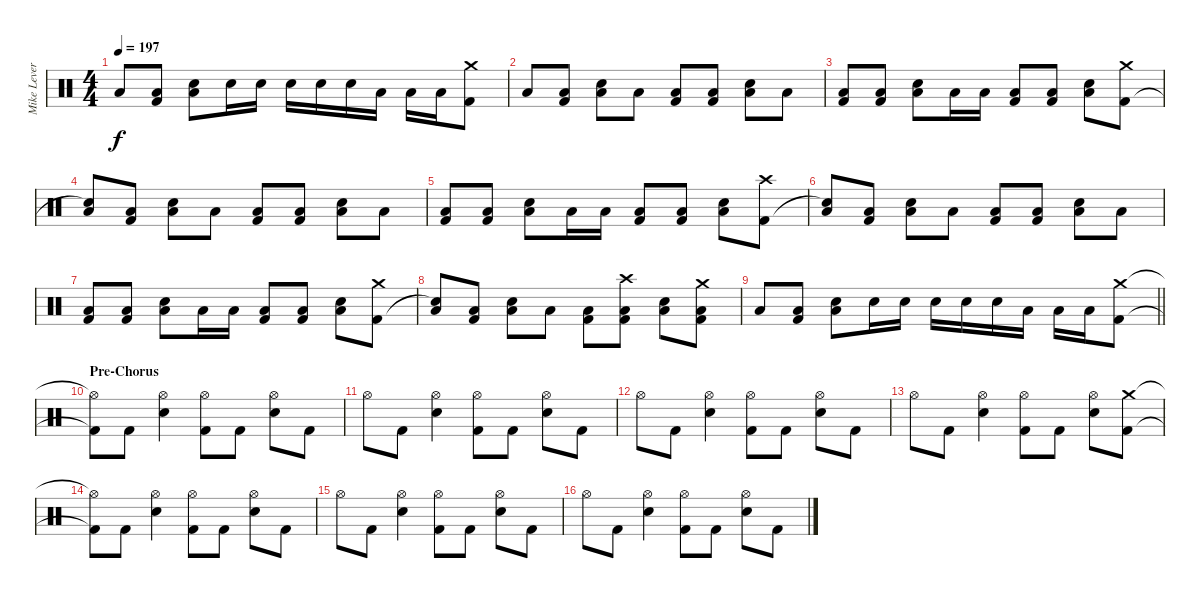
\track ("Mike Leverence - Drums" "Mike Lever") {instrument percussion}
\staff {score}
\articulation defaults
\ts (4 4)
\tempo 197
\clef neutral
\ks c "Low Floor Tom (hit)".8{dy f}
("Low Floor Tom (hit)" "Kick (hit) 2").8 ("Low Floor Tom (hit)" "Electric Snare (hit)").8 "Electric Snare (hit)".16 "Electric Snare (hit)".16 "Electric Snare (hit)".16 "Electric Snare (hit)".16 "Electric Snare (hit)".16 "Low Tom (hit)".16 "Low Tom (hit)".16 "Low Tom (hit)".16 ("Crash medium (hit)" "Kick (hit) 2").8 |
"Low Floor Tom (hit)".8 ("Low Floor Tom (hit)" "Kick (hit) 2").8 ("Low Floor Tom (hit)" "Electric Snare (hit)").8 "Low Floor Tom (hit)".8 ("Low Floor Tom (hit)" "Kick (hit) 2").8 ("Low Floor Tom (hit)" "Kick (hit) 2").8 ("Low Floor Tom (hit)" "Electric Snare (hit)").8 "Low Floor Tom (hit)".8 |
("Low Floor Tom (hit)" "Kick (hit) 2").8 ("Low Floor Tom (hit)" "Kick (hit) 2").8 ("Low Floor Tom (hit)" "Electric Snare (hit)").8 "Low Floor Tom (hit)".16 "Low Floor Tom (hit)".16 ("Low Floor Tom (hit)" "Kick (hit) 2").8 ("Low Floor Tom (hit)" "Kick (hit) 2").8 ("Low Floor Tom (hit)" "Electric Snare (hit)").8 ("Crash medium (hit)" "Kick (hit) 2").8 |
("Low Floor Tom (hit)" "Snare (hit)"{t}).8 ("Low Floor Tom (hit)" "Kick (hit) 2").8 ("Low Floor Tom (hit)" "Electric Snare (hit)").8 "Low Floor Tom (hit)".8 ("Low Floor Tom (hit)" "Kick (hit) 2").8 ("Low Floor Tom (hit)" "Kick (hit) 2").8 ("Low Floor Tom (hit)" "Electric Snare (hit)").8 "Low Floor Tom (hit)".8 |
("Low Floor Tom (hit)" "Kick (hit) 2").8 ("Low Floor Tom (hit)" "Kick (hit) 2").8 ("Low Floor Tom (hit)" "Electric Snare (hit)").8 "Low Floor Tom (hit)".16 "Low Floor Tom (hit)".16 ("Low Floor Tom (hit)" "Kick (hit) 2").8 ("Low Floor Tom (hit)" "Kick (hit) 2").8 ("Low Floor Tom (hit)" "Electric Snare (hit)").8 ("Crash high (hit)" "Kick (hit) 2").8 |
("Low Floor Tom (hit)" "Snare (hit)"{t}).8 ("Low Floor Tom (hit)" "Kick (hit) 2").8 ("Low Floor Tom (hit)" "Electric Snare (hit)").8 "Low Floor Tom (hit)".8 ("Low Floor Tom (hit)" "Kick (hit) 2").8 ("Low Floor Tom (hit)" "Kick (hit) 2").8 ("Low Floor Tom (hit)" "Electric Snare (hit)").8 "Low Floor Tom (hit)".8 |
("Low Floor Tom (hit)" "Kick (hit) 2").8 ("Low Floor Tom (hit)" "Kick (hit) 2").8 ("Low Floor Tom (hit)" "Electric Snare (hit)").8 "Low Floor Tom (hit)".16 "Low Floor Tom (hit)".16 ("Low Floor Tom (hit)" "Kick (hit) 2").8 ("Low Floor Tom (hit)" "Kick (hit) 2").8 ("Low Floor Tom (hit)" "Electric Snare (hit)").8 ("Crash medium (hit)" "Kick (hit) 2").8 |
("Low Floor Tom (hit)" "Snare (hit)"{t}).8 ("Low Floor Tom (hit)" "Kick (hit) 2").8 ("Low Floor Tom (hit)" "Electric Snare (hit)").8 "Low Floor Tom (hit)".8 ("Low Floor Tom (hit)" "Kick (hit) 2").8 ("Crash high (hit)" "Low Floor Tom (hit)" "Kick (hit) 2").8 ("Low Floor Tom (hit)" "Electric Snare (hit)").8 ("Crash medium (hit)" "Low Floor Tom (hit)" "Kick (hit) 2").8 |
\barLineRight lightlight "Low Floor Tom (hit)".8
("Low Floor Tom (hit)" "Kick (hit) 2").8 ("Low Floor Tom (hit)" "Electric Snare (hit)").8 "Electric Snare (hit)".16 "Electric Snare (hit)".16 "Electric Snare (hit)".16 "Electric Snare (hit)".16 "Electric Snare (hit)".16 "Low Tom (hit)".16 "Low Tom (hit)".16 "Low Tom (hit)".16 ("Crash medium (hit)" "Kick (hit) 2").8 |
\section ("" "Pre-Chorus")
("Hi-Hat (open)"{t} "Kick (hit) 2"{t}).8 "Kick (hit) 2".8 ("Hi-Hat (open)" "Electric Snare (hit)").4 ("Hi-Hat (open)" "Kick (hit) 2").8 "Kick (hit) 2".8 ("Hi-Hat (open)" "Electric Snare (hit)").8 "Kick (hit) 2".8 |
"Hi-Hat (open)".8 "Kick (hit) 2".8 ("Hi-Hat (open)" "Electric Snare (hit)").4 ("Hi-Hat (open)" "Kick (hit) 2").8 "Kick (hit) 2".8 ("Hi-Hat (open)" "Electric Snare (hit)").8 "Kick (hit) 2".8 |
"Hi-Hat (open)".8 "Kick (hit) 2".8 ("Hi-Hat (open)" "Electric Snare (hit)").4 ("Hi-Hat (open)" "Kick (hit) 2").8 "Kick (hit) 2".8 ("Hi-Hat (open)" "Electric Snare (hit)").8 "Kick (hit) 2".8 |
"Hi-Hat (open)".8 "Kick (hit) 2".8 ("Hi-Hat (open)" "Electric Snare (hit)").4 ("Hi-Hat (open)" "Kick (hit) 2").8 "Kick (hit) 2".8 ("Hi-Hat (open)" "Electric Snare (hit)").8 ("Crash medium (hit)" "Kick (hit) 2").8 |
("Hi-Hat (open)"{t} "Kick (hit) 2"{t}).8 "Kick (hit) 2".8 ("Hi-Hat (open)" "Electric Snare (hit)").4 ("Hi-Hat (open)" "Kick (hit) 2").8 "Kick (hit) 2".8 ("Hi-Hat (open)" "Electric Snare (hit)").8 "Kick (hit) 2".8 |
"Hi-Hat (open)".8 "Kick (hit) 2".8 ("Hi-Hat (open)" "Electric Snare (hit)").4 ("Hi-Hat (open)" "Kick (hit) 2").8 "Kick (hit) 2".8 ("Hi-Hat (open)" "Electric Snare (hit)").8 "Kick (hit) 2".8 |
"Hi-Hat (open)".8 "Kick (hit) 2".8 ("Hi-Hat (open)" "Electric Snare (hit)").4 ("Hi-Hat (open)" "Kick (hit) 2").8 "Kick (hit) 2".8 ("Hi-Hat (open)" "Electric Snare (hit)").8 "Kick (hit) 2".8
